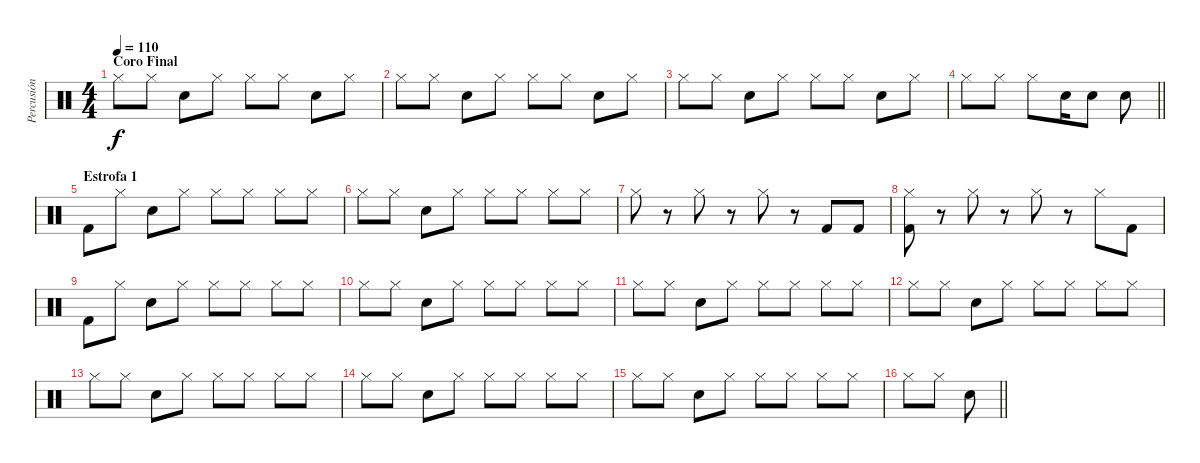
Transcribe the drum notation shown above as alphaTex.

\track ("Percusión" "Percusión") {instrument percussion}
\staff {score}
\articulation defaults
\ts (4 4)
\section ("" "Coro Final")
\tempo 110
\clef neutral
\ks c "Hi-Hat (closed)".8{dy f} "Hi-Hat (closed)".8 "Snare (hit) 2".8 "Hi-Hat (closed)".8 "Hi-Hat (closed)".8 "Hi-Hat (closed)".8 "Snare (hit) 2".8 "Hi-Hat (closed)".8
|
"Hi-Hat (closed)".8 "Hi-Hat (closed)".8 "Snare (hit) 2".8 "Hi-Hat (closed)".8 "Hi-Hat (closed)".8 "Hi-Hat (closed)".8 "Snare (hit) 2".8 "Hi-Hat (closed)".8 |
"Hi-Hat (closed)".8 "Hi-Hat (closed)".8 "Snare (hit) 2".8 "Hi-Hat (closed)".8 "Hi-Hat (closed)".8 "Hi-Hat (closed)".8 "Snare (hit) 2".8 "Hi-Hat (closed)".8 |
\barLineRight lightlight "Hi-Hat (closed)".8 "Hi-Hat (closed)".8 "Hi-Hat (closed)".8 "Electric Snare (hit)".16 "Electric Snare (hit)".8 "Electric Snare (hit)".8
|
\section ("" "Estrofa 1")
"Kick (hit) 2".8 "Hi-Hat (closed)".8 "Snare (hit) 2".8 "Hi-Hat (closed)".8 "Hi-Hat (closed)".8 "Hi-Hat (closed)".8 "Hi-Hat (closed)".8 "Hi-Hat (closed)".8 |
"Hi-Hat (closed)".8 "Hi-Hat (closed)".8 "Snare (hit) 2".8 "Hi-Hat (closed)".8 "Hi-Hat (closed)".8 "Hi-Hat (closed)".8 "Hi-Hat (closed)".8 "Hi-Hat (closed)".8 |
"Hi-Hat (closed)".8 r.8 "Hi-Hat (closed)".8 r.8 "Hi-Hat (closed)".8 r.8 "Kick (hit) 2".8 "Kick (hit) 2".8 |
("Hi-Hat (closed)" "Kick (hit) 2").8 r.8 "Hi-Hat (closed)".8 r.8 "Hi-Hat (closed)".8 r.8 "Hi-Hat (closed)".8 "Kick (hit) 2".8 |
"Kick (hit) 2".8 "Hi-Hat (closed)".8 "Snare (hit) 2".8 "Hi-Hat (closed)".8 "Hi-Hat (closed)".8 "Hi-Hat (closed)".8 "Hi-Hat (closed)".8 "Hi-Hat (closed)".8 |
"Hi-Hat (closed)".8 "Hi-Hat (closed)".8 "Snare (hit) 2".8 "Hi-Hat (closed)".8 "Hi-Hat (closed)".8 "Hi-Hat (closed)".8 "Hi-Hat (closed)".8 "Hi-Hat (closed)".8 |
"Hi-Hat (closed)".8 "Hi-Hat (closed)".8 "Snare (hit) 2".8 "Hi-Hat (closed)".8 "Hi-Hat (closed)".8 "Hi-Hat (closed)".8 "Hi-Hat (closed)".8 "Hi-Hat (closed)".8 |
"Hi-Hat (closed)".8 "Hi-Hat (closed)".8 "Snare (hit) 2".8 "Hi-Hat (closed)".8 "Hi-Hat (closed)".8 "Hi-Hat (closed)".8 "Hi-Hat (closed)".8 "Hi-Hat (closed)".8 |
"Hi-Hat (closed)".8 "Hi-Hat (closed)".8 "Snare (hit) 2".8 "Hi-Hat (closed)".8 "Hi-Hat (closed)".8 "Hi-Hat (closed)".8 "Hi-Hat (closed)".8 "Hi-Hat (closed)".8 |
"Hi-Hat (closed)".8 "Hi-Hat (closed)".8 "Snare (hit) 2".8 "Hi-Hat (closed)".8 "Hi-Hat (closed)".8 "Hi-Hat (closed)".8 "Hi-Hat (closed)".8 "Hi-Hat (closed)".8 |
"Hi-Hat (closed)".8 "Hi-Hat (closed)".8 "Snare (hit) 2".8 "Hi-Hat (closed)".8 "Hi-Hat (closed)".8 "Hi-Hat (closed)".8 "Hi-Hat (closed)".8 "Hi-Hat (closed)".8 |
\barLineRight lightlight "Hi-Hat (closed)".8 "Hi-Hat (closed)".8 "Snare (hit) 2".8
